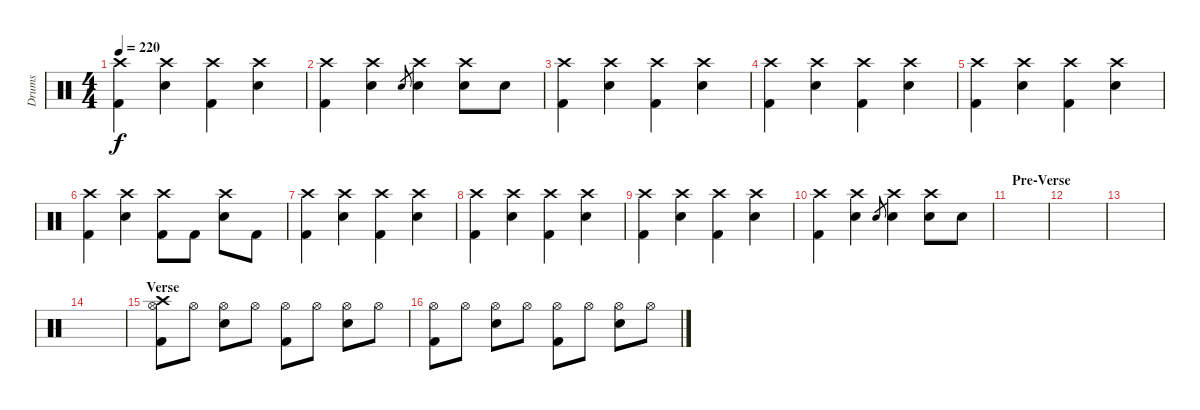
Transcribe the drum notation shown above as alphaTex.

\track ("Drums" "Drums") {instrument percussion}
\staff {score}
\articulation defaults
\ts (4 4)
\tempo 220
\clef neutral
\ks c
("Crash high (hit)" "Kick (hit) 2").4{dy f} ("Crash high (hit)" "Electric Snare (hit)").4 ("Crash high (hit)" "Kick (hit) 2").4 ("Crash high (hit)" "Electric Snare (hit)").4 |
("Crash high (hit)" "Kick (hit) 2").4 ("Crash high (hit)" "Electric Snare (hit)").4 "Electric Snare (hit)".8{gr} ("Crash high (hit)" "Electric Snare (hit)").4 ("Crash high (hit)" "Electric Snare (hit)").8 "Electric Snare (hit)".8 |
("Crash high (hit)" "Kick (hit) 2").4 ("Crash high (hit)" "Electric Snare (hit)").4 ("Crash high (hit)" "Kick (hit) 2").4 ("Crash high (hit)" "Electric Snare (hit)").4 |
("Crash high (hit)" "Kick (hit) 2").4 ("Crash high (hit)" "Electric Snare (hit)").4 ("Crash high (hit)" "Kick (hit) 2").4 ("Crash high (hit)" "Electric Snare (hit)").4 |
("Crash high (hit)" "Kick (hit) 2").4 ("Crash high (hit)" "Electric Snare (hit)").4 ("Crash high (hit)" "Kick (hit) 2").4 ("Crash high (hit)" "Electric Snare (hit)").4 |
("Crash high (hit)" "Kick (hit) 2").4 ("Crash high (hit)" "Electric Snare (hit)").4 ("Crash high (hit)" "Kick (hit) 2").8 "Kick (hit) 2".8 ("Crash high (hit)" "Electric Snare (hit)").8 "Kick (hit) 2".8 |
("Crash high (hit)" "Kick (hit) 2").4 ("Crash high (hit)" "Electric Snare (hit)").4 ("Crash high (hit)" "Kick (hit) 2").4 ("Crash high (hit)" "Electric Snare (hit)").4 |
("Crash high (hit)" "Kick (hit) 2").4 ("Crash high (hit)" "Electric Snare (hit)").4 ("Crash high (hit)" "Kick (hit) 2").4 ("Crash high (hit)" "Electric Snare (hit)").4 |
("Crash high (hit)" "Kick (hit) 2").4 ("Crash high (hit)" "Electric Snare (hit)").4 ("Crash high (hit)" "Kick (hit) 2").4 ("Crash high (hit)" "Electric Snare (hit)").4 |
("Crash high (hit)" "Kick (hit) 2").4 ("Crash high (hit)" "Electric Snare (hit)").4 "Electric Snare (hit)".8{gr} ("Crash high (hit)" "Electric Snare (hit)").4 ("Crash high (hit)" "Electric Snare (hit)").8 "Electric Snare (hit)".8 |
\section ("" "Pre-Verse")
|
|
|
|
\section ("" "Verse")
("Crash high (hit)" "Hi-Hat (open)" "Kick (hit) 2").8 "Hi-Hat (open)".8 ("Hi-Hat (open)" "Electric Snare (hit)").8 "Hi-Hat (open)".8 ("Hi-Hat (open)" "Kick (hit) 2").8 "Hi-Hat (open)".8 ("Hi-Hat (open)" "Electric Snare (hit)").8 "Hi-Hat (open)".8 |
("Hi-Hat (open)" "Kick (hit) 2").8 "Hi-Hat (open)".8 ("Hi-Hat (open)" "Electric Snare (hit)").8 "Hi-Hat (open)".8 ("Hi-Hat (open)" "Kick (hit) 2").8 "Hi-Hat (open)".8 ("Hi-Hat (open)" "Electric Snare (hit)").8 "Hi-Hat (open)".8
